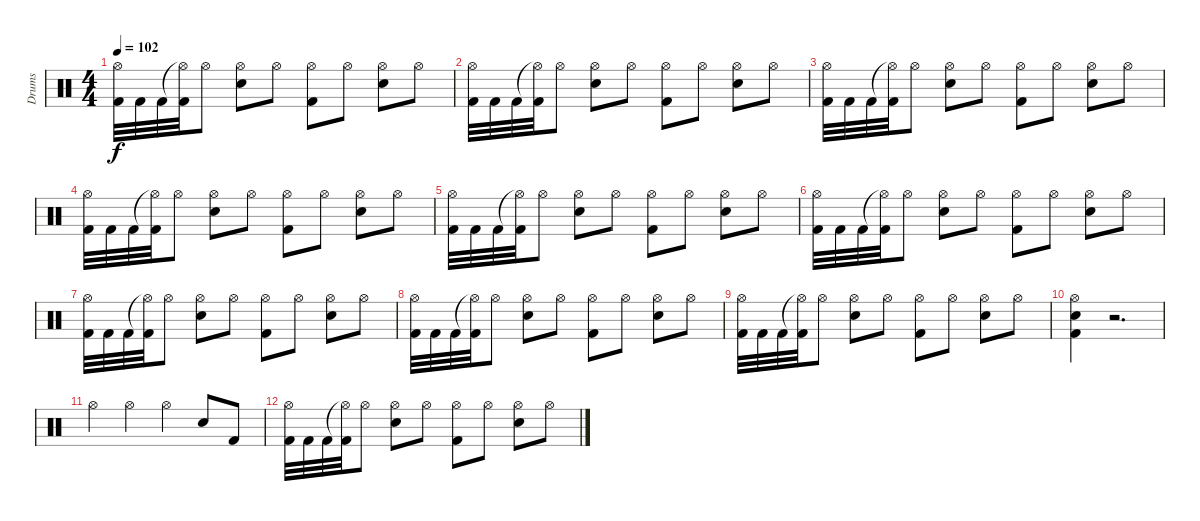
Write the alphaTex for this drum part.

\track ("Drums" "Drums") {instrument percussion}
\staff {score}
\articulation defaults
\ts (4 4)
\tempo 102
\clef neutral
\ks c
("Hi-Hat (open)" "Kick (hit) 2").32{dy f} "Kick (hit) 2".32 "Kick (hit) 2".32 ("Hi-Hat (open)"{t} "Kick (hit) 2").32 "Hi-Hat (open)".8 ("Hi-Hat (open)" "Snare (hit) 2").8 "Hi-Hat (open)".8 ("Hi-Hat (open)" "Kick (hit) 2").8 "Hi-Hat (open)".8 ("Hi-Hat (open)" "Snare (hit) 2").8 "Hi-Hat (open)".8 |
("Hi-Hat (open)" "Kick (hit) 2").32 "Kick (hit) 2".32 "Kick (hit) 2".32 ("Hi-Hat (open)"{t} "Kick (hit) 2").32 "Hi-Hat (open)".8 ("Hi-Hat (open)" "Snare (hit) 2").8 "Hi-Hat (open)".8 ("Hi-Hat (open)" "Kick (hit) 2").8 "Hi-Hat (open)".8 ("Hi-Hat (open)" "Snare (hit) 2").8 "Hi-Hat (open)".8 |
("Hi-Hat (open)" "Kick (hit) 2").32 "Kick (hit) 2".32 "Kick (hit) 2".32 ("Hi-Hat (open)"{t} "Kick (hit) 2").32 "Hi-Hat (open)".8 ("Hi-Hat (open)" "Snare (hit) 2").8 "Hi-Hat (open)".8 ("Hi-Hat (open)" "Kick (hit) 2").8 "Hi-Hat (open)".8 ("Hi-Hat (open)" "Snare (hit) 2").8 "Hi-Hat (open)".8 |
("Hi-Hat (open)" "Kick (hit) 2").32 "Kick (hit) 2".32 "Kick (hit) 2".32 ("Hi-Hat (open)"{t} "Kick (hit) 2").32 "Hi-Hat (open)".8 ("Hi-Hat (open)" "Snare (hit) 2").8 "Hi-Hat (open)".8 ("Hi-Hat (open)" "Kick (hit) 2").8 "Hi-Hat (open)".8 ("Hi-Hat (open)" "Snare (hit) 2").8 "Hi-Hat (open)".8 |
("Hi-Hat (open)" "Kick (hit) 2").32 "Kick (hit) 2".32 "Kick (hit) 2".32 ("Hi-Hat (open)"{t} "Kick (hit) 2").32 "Hi-Hat (open)".8 ("Hi-Hat (open)" "Snare (hit) 2").8 "Hi-Hat (open)".8 ("Hi-Hat (open)" "Kick (hit) 2").8 "Hi-Hat (open)".8 ("Hi-Hat (open)" "Snare (hit) 2").8 "Hi-Hat (open)".8 |
("Hi-Hat (open)" "Kick (hit) 2").32 "Kick (hit) 2".32 "Kick (hit) 2".32 ("Hi-Hat (open)"{t} "Kick (hit) 2").32 "Hi-Hat (open)".8 ("Hi-Hat (open)" "Snare (hit) 2").8 "Hi-Hat (open)".8 ("Hi-Hat (open)" "Kick (hit) 2").8 "Hi-Hat (open)".8 ("Hi-Hat (open)" "Snare (hit) 2").8 "Hi-Hat (open)".8 |
("Hi-Hat (open)" "Kick (hit) 2").32 "Kick (hit) 2".32 "Kick (hit) 2".32 ("Hi-Hat (open)"{t} "Kick (hit) 2").32 "Hi-Hat (open)".8 ("Hi-Hat (open)" "Snare (hit) 2").8 "Hi-Hat (open)".8 ("Hi-Hat (open)" "Kick (hit) 2").8 "Hi-Hat (open)".8 ("Hi-Hat (open)" "Snare (hit) 2").8 "Hi-Hat (open)".8 |
("Hi-Hat (open)" "Kick (hit) 2").32 "Kick (hit) 2".32 "Kick (hit) 2".32 ("Hi-Hat (open)"{t} "Kick (hit) 2").32 "Hi-Hat (open)".8 ("Hi-Hat (open)" "Snare (hit) 2").8 "Hi-Hat (open)".8 ("Hi-Hat (open)" "Kick (hit) 2").8 "Hi-Hat (open)".8 ("Hi-Hat (open)" "Snare (hit) 2").8 "Hi-Hat (open)".8 |
("Hi-Hat (open)" "Kick (hit) 2").32 "Kick (hit) 2".32 "Kick (hit) 2".32 ("Hi-Hat (open)"{t} "Kick (hit) 2").32 "Hi-Hat (open)".8 ("Hi-Hat (open)" "Snare (hit) 2").8 "Hi-Hat (open)".8 ("Hi-Hat (open)" "Kick (hit) 2").8 "Hi-Hat (open)".8 ("Hi-Hat (open)" "Snare (hit) 2").8 "Hi-Hat (open)".8 |
("Hi-Hat (open)" "Kick (hit) 2" "Snare (hit) 2").4 r.2{d} |
"Hi-Hat (open)".4 "Hi-Hat (open)".4 "Hi-Hat (open)".4 "Snare (hit) 2".8 "Kick (hit) 2".8 |
("Hi-Hat (open)" "Kick (hit) 2").32 "Kick (hit) 2".32 "Kick (hit) 2".32 ("Hi-Hat (open)"{t} "Kick (hit) 2").32 "Hi-Hat (open)".8 ("Hi-Hat (open)" "Snare (hit) 2").8 "Hi-Hat (open)".8 ("Hi-Hat (open)" "Kick (hit) 2").8 "Hi-Hat (open)".8 ("Hi-Hat (open)" "Snare (hit) 2").8 "Hi-Hat (open)".8
